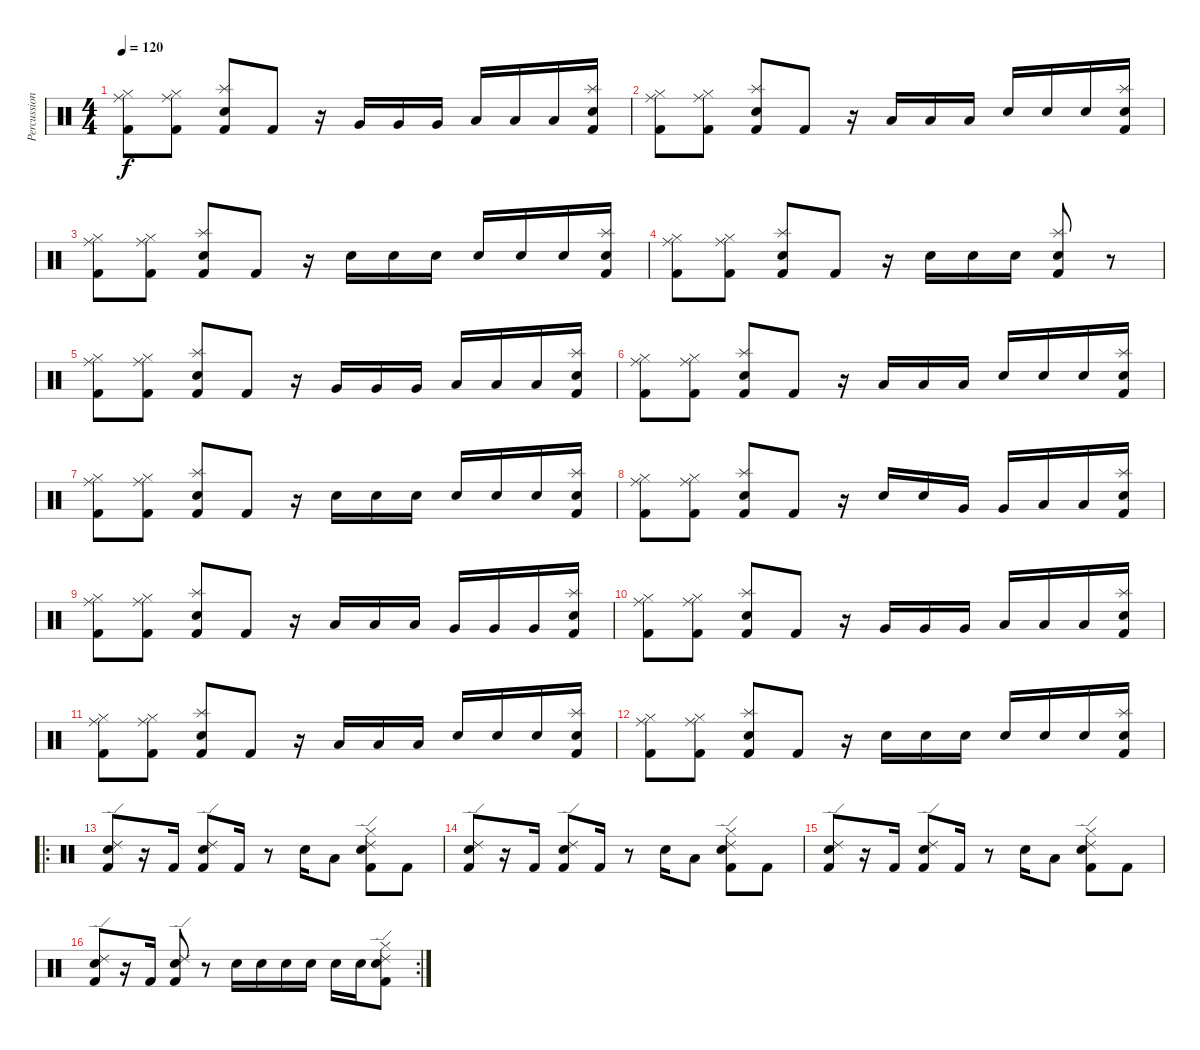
\track ("Percussions" "Percussion") {instrument percussion}
\staff {score}
\articulation defaults
\ts (4 4)
\tempo 120
\clef neutral
\ks c
("Ride (middle)" "Hi-Hat (closed)" "Kick (hit) 2").8{dy f} ("Ride (middle)" "Hi-Hat (closed)" "Kick (hit) 2").8 ("Splash (hit)" "Electric Snare (hit)" "Kick (hit) 2").8 "Kick (hit) 2".8 r.16 "Very Low Tom (hit)".16 "Very Low Tom (hit)".16 "Very Low Tom (hit)".16 "Low Floor Tom (hit)".16 "Low Floor Tom (hit)".16 "Low Floor Tom (hit)".16 ("Splash (hit)" "Electric Snare (hit)" "Kick (hit) 2").16 |
("Ride (middle)" "Hi-Hat (closed)" "Kick (hit) 2").8 ("Ride (middle)" "Hi-Hat (closed)" "Kick (hit) 2").8 ("Splash (hit)" "Electric Snare (hit)" "Kick (hit) 2").8 "Kick (hit) 2".8 r.16 "Low Floor Tom (hit)".16 "Low Floor Tom (hit)".16 "Low Floor Tom (hit)".16 "Electric Snare (hit)".16 "Electric Snare (hit)".16 "Electric Snare (hit)".16 ("Splash (hit)" "Electric Snare (hit)" "Kick (hit) 2").16 |
("Ride (middle)" "Hi-Hat (closed)" "Kick (hit) 2").8 ("Ride (middle)" "Hi-Hat (closed)" "Kick (hit) 2").8 ("Splash (hit)" "Electric Snare (hit)" "Kick (hit) 2").8 "Kick (hit) 2".8 r.16 "Electric Snare (hit)".16 "Electric Snare (hit)".16 "Electric Snare (hit)".16 "Electric Snare (hit)".16 "Electric Snare (hit)".16 "Electric Snare (hit)".16 ("Splash (hit)" "Electric Snare (hit)" "Kick (hit) 2").16 |
("Ride (middle)" "Hi-Hat (closed)" "Kick (hit) 2").8 ("Ride (middle)" "Hi-Hat (closed)" "Kick (hit) 2").8 ("Splash (hit)" "Electric Snare (hit)" "Kick (hit) 2").8 "Kick (hit) 2".8 r.16 "Electric Snare (hit)".16 "Electric Snare (hit)".16 "Electric Snare (hit)".16 ("Splash (hit)" "Electric Snare (hit)" "Kick (hit) 2").8 r.8 |
("Ride (middle)" "Hi-Hat (closed)" "Kick (hit) 2").8 ("Ride (middle)" "Hi-Hat (closed)" "Kick (hit) 2").8 ("Splash (hit)" "Electric Snare (hit)" "Kick (hit) 2").8 "Kick (hit) 2".8 r.16 "Very Low Tom (hit)".16 "Very Low Tom (hit)".16 "Very Low Tom (hit)".16 "Low Floor Tom (hit)".16 "Low Floor Tom (hit)".16 "Low Floor Tom (hit)".16 ("Splash (hit)" "Electric Snare (hit)" "Kick (hit) 2").16 |
("Ride (middle)" "Hi-Hat (closed)" "Kick (hit) 2").8 ("Ride (middle)" "Hi-Hat (closed)" "Kick (hit) 2").8 ("Splash (hit)" "Electric Snare (hit)" "Kick (hit) 2").8 "Kick (hit) 2".8 r.16 "Low Floor Tom (hit)".16 "Low Floor Tom (hit)".16 "Low Floor Tom (hit)".16 "Electric Snare (hit)".16 "Electric Snare (hit)".16 "Electric Snare (hit)".16 ("Splash (hit)" "Electric Snare (hit)" "Kick (hit) 2").16 |
("Ride (middle)" "Hi-Hat (closed)" "Kick (hit) 2").8 ("Ride (middle)" "Hi-Hat (closed)" "Kick (hit) 2").8 ("Splash (hit)" "Electric Snare (hit)" "Kick (hit) 2").8 "Kick (hit) 2".8 r.16 "Electric Snare (hit)".16 "Electric Snare (hit)".16 "Electric Snare (hit)".16 "Electric Snare (hit)".16 "Electric Snare (hit)".16 "Electric Snare (hit)".16 ("Splash (hit)" "Electric Snare (hit)" "Kick (hit) 2").16 |
("Ride (middle)" "Hi-Hat (closed)" "Kick (hit) 2").8 ("Ride (middle)" "Hi-Hat (closed)" "Kick (hit) 2").8 ("Splash (hit)" "Electric Snare (hit)" "Kick (hit) 2").8 "Kick (hit) 2".8 r.16 "Electric Snare (hit)".16 "Electric Snare (hit)".16 "Very Low Tom (hit)".16 "Very Low Tom (hit)".16 "Low Floor Tom (hit)".16 "Low Floor Tom (hit)".16 ("Splash (hit)" "Electric Snare (hit)" "Kick (hit) 2").16 |
("Ride (middle)" "Hi-Hat (closed)" "Kick (hit) 2").8 ("Ride (middle)" "Hi-Hat (closed)" "Kick (hit) 2").8 ("Splash (hit)" "Electric Snare (hit)" "Kick (hit) 2").8 "Kick (hit) 2".8 r.16 "Low Tom (hit)".16 "Low Tom (hit)".16 "Low Tom (hit)".16 "Very Low Tom (hit)".16 "Very Low Tom (hit)".16 "Very Low Tom (hit)".16 ("Splash (hit)" "Electric Snare (hit)" "Kick (hit) 2").16 |
("Ride (middle)" "Hi-Hat (closed)" "Kick (hit) 2").8 ("Ride (middle)" "Hi-Hat (closed)" "Kick (hit) 2").8 ("Splash (hit)" "Electric Snare (hit)" "Kick (hit) 2").8 "Kick (hit) 2".8 r.16 "Very Low Tom (hit)".16 "Very Low Tom (hit)".16 "Very Low Tom (hit)".16 "Low Floor Tom (hit)".16 "Low Floor Tom (hit)".16 "Low Floor Tom (hit)".16 ("Splash (hit)" "Electric Snare (hit)" "Kick (hit) 2").16 |
("Ride (middle)" "Hi-Hat (closed)" "Kick (hit) 2").8 ("Ride (middle)" "Hi-Hat (closed)" "Kick (hit) 2").8 ("Splash (hit)" "Electric Snare (hit)" "Kick (hit) 2").8 "Kick (hit) 2".8 r.16 "Low Floor Tom (hit)".16 "Low Floor Tom (hit)".16 "Low Floor Tom (hit)".16 "Electric Snare (hit)".16 "Electric Snare (hit)".16 "Electric Snare (hit)".16 ("Splash (hit)" "Electric Snare (hit)" "Kick (hit) 2").16 |
("Ride (middle)" "Hi-Hat (closed)" "Kick (hit) 2").8 ("Ride (middle)" "Hi-Hat (closed)" "Kick (hit) 2").8 ("Splash (hit)" "Electric Snare (hit)" "Kick (hit) 2").8 "Kick (hit) 2".8 r.16 "Electric Snare (hit)".16 "Electric Snare (hit)".16 "Electric Snare (hit)".16 "Electric Snare (hit)".16 "Electric Snare (hit)".16 "Electric Snare (hit)".16 ("Splash (hit)" "Electric Snare (hit)" "Kick (hit) 2").16 |
\ro
("Ride (edge) 2" "Electric Snare (hit)" "Kick (hit) 2").8 r.16 "Kick (hit) 2".16 ("Ride (edge) 2" "Electric Snare (hit)" "Kick (hit) 2").8 "Kick (hit) 2".16 r.8 "Electric Snare (hit)".16 "Low Floor Tom (hit)".8 ("Ride (edge) 2" "Hi-Hat (closed)" "Electric Snare (hit)" "Kick (hit) 2").8 "Kick (hit) 2".8 |
("Ride (edge) 2" "Electric Snare (hit)" "Kick (hit) 2").8 r.16 "Kick (hit) 2".16 ("Ride (edge) 2" "Electric Snare (hit)" "Kick (hit) 2").8 "Kick (hit) 2".16 r.8 "Electric Snare (hit)".16 "Low Floor Tom (hit)".8 ("Ride (edge) 2" "Hi-Hat (closed)" "Electric Snare (hit)" "Kick (hit) 2").8 "Kick (hit) 2".8 |
("Ride (edge) 2" "Electric Snare (hit)" "Kick (hit) 2").8 r.16 "Kick (hit) 2".16 ("Ride (edge) 2" "Electric Snare (hit)" "Kick (hit) 2").8 "Kick (hit) 2".16 r.8 "Electric Snare (hit)".16 "Low Floor Tom (hit)".8 ("Ride (edge) 2" "Hi-Hat (closed)" "Electric Snare (hit)" "Kick (hit) 2").8 "Kick (hit) 2".8 |
\rc 2
("Ride (edge) 2" "Electric Snare (hit)" "Kick (hit) 2").8 r.16 "Kick (hit) 2".16 ("Ride (edge) 2" "Electric Snare (hit)" "Kick (hit) 2").8 r.8 "Electric Snare (hit)".16 "Electric Snare (hit)".16 "Electric Snare (hit)".16 "Electric Snare (hit)".16 "Electric Snare (hit)".16 "Electric Snare (hit)".16 ("Ride (edge) 2" "Hi-Hat (closed)" "Electric Snare (hit)" "Kick (hit) 2").8
